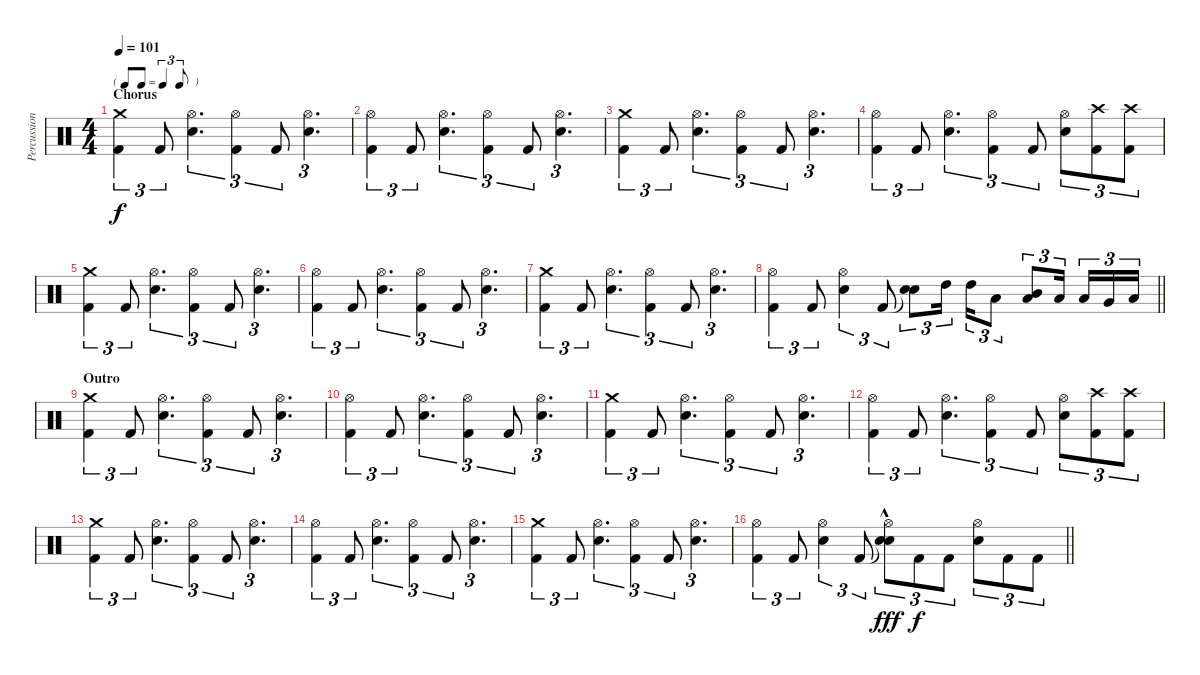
\track ("Percussion" "Percussion") {instrument percussion}
\staff {score}
\articulation defaults
\ts (4 4)
\tf triplet8th
\section ("" "Chorus")
\tempo 101
\clef neutral
\ks c
("Crash medium (hit)" "Kick (hit) 2").4{tu (3 2) dy f} "Kick (hit) 2".8{tu (3 2)} ("Hi-Hat (open)" "Electric Snare (hit)").4{d tu (3 2)} ("Hi-Hat (open)" "Kick (hit) 2").4{tu (3 2)} "Kick (hit) 2".8{tu (3 2)} ("Hi-Hat (open)" "Electric Snare (hit)").4{d tu (3 2)} |
("Hi-Hat (open)" "Kick (hit) 2").4{tu (3 2)} "Kick (hit) 2".8{tu (3 2)} ("Hi-Hat (open)" "Electric Snare (hit)").4{d tu (3 2)} ("Hi-Hat (open)" "Kick (hit) 2").4{tu (3 2)} "Kick (hit) 2".8{tu (3 2)} ("Hi-Hat (open)" "Electric Snare (hit)").4{d tu (3 2)} |
("Crash medium (hit)" "Kick (hit) 2").4{tu (3 2)} "Kick (hit) 2".8{tu (3 2)} ("Hi-Hat (open)" "Electric Snare (hit)").4{d tu (3 2)} ("Hi-Hat (open)" "Kick (hit) 2").4{tu (3 2)} "Kick (hit) 2".8{tu (3 2)} ("Hi-Hat (open)" "Electric Snare (hit)").4{d tu (3 2)} |
("Hi-Hat (open)" "Kick (hit) 2").4{tu (3 2)} "Kick (hit) 2".8{tu (3 2)} ("Hi-Hat (open)" "Electric Snare (hit)").4{d tu (3 2)} ("Hi-Hat (open)" "Kick (hit) 2").4{tu (3 2)} "Kick (hit) 2".8{tu (3 2)} ("Hi-Hat (open)" "Electric Snare (hit)").8{tu (3 2)} ("Crash high (hit)" "Kick (hit) 2").8{tu (3 2)} ("Crash high (hit)" "Kick (hit) 2").8{tu (3 2)} |
("Crash medium (hit)" "Kick (hit) 2").4{tu (3 2)} "Kick (hit) 2".8{tu (3 2)} ("Hi-Hat (open)" "Electric Snare (hit)").4{d tu (3 2)} ("Hi-Hat (open)" "Kick (hit) 2").4{tu (3 2)} "Kick (hit) 2".8{tu (3 2)} ("Hi-Hat (open)" "Electric Snare (hit)").4{d tu (3 2)} |
("Hi-Hat (open)" "Kick (hit) 2").4{tu (3 2)} "Kick (hit) 2".8{tu (3 2)} ("Hi-Hat (open)" "Electric Snare (hit)").4{d tu (3 2)} ("Hi-Hat (open)" "Kick (hit) 2").4{tu (3 2)} "Kick (hit) 2".8{tu (3 2)} ("Hi-Hat (open)" "Electric Snare (hit)").4{d tu (3 2)} |
("Crash medium (hit)" "Kick (hit) 2").4{tu (3 2)} "Kick (hit) 2".8{tu (3 2)} ("Hi-Hat (open)" "Electric Snare (hit)").4{d tu (3 2)} ("Hi-Hat (open)" "Kick (hit) 2").4{tu (3 2)} "Kick (hit) 2".8{tu (3 2)} ("Hi-Hat (open)" "Electric Snare (hit)").4{d tu (3 2)} |
\barLineRight lightlight
("Hi-Hat (open)" "Kick (hit) 2").4{tu (3 2)} "Kick (hit) 2".8{tu (3 2)} ("Hi-Hat (open)" "Electric Snare (hit)").4{tu (3 2)} "Kick (hit) 2".8{tu (3 2)} ("Snare (hit)"{t} "Electric Snare (hit)").8{tu (3 2)} "High Tom (hit)".16{tu (3 2) beam splitsecondary} "High Tom (hit)".16{tu (3 2)} "Low Tom (hit)".8{tu (3 2)} ("Mid Tom (hit)" "Low Tom (hit)").8{tu (3 2)} "Low Tom (hit)".16{tu (3 2) beam splitsecondary} "Low Tom (hit)".16{tu (3 2)} "Very Low Tom (hit)".16{tu (3 2)} "Low Floor Tom (hit)".16{tu (3 2)} |
\section ("" "Outro")
("Crash medium (hit)" "Kick (hit) 2").4{tu (3 2)} "Kick (hit) 2".8{tu (3 2)} ("Hi-Hat (open)" "Electric Snare (hit)").4{d tu (3 2)} ("Hi-Hat (open)" "Kick (hit) 2").4{tu (3 2)} "Kick (hit) 2".8{tu (3 2)} ("Hi-Hat (open)" "Electric Snare (hit)").4{d tu (3 2)} |
("Hi-Hat (open)" "Kick (hit) 2").4{tu (3 2)} "Kick (hit) 2".8{tu (3 2)} ("Hi-Hat (open)" "Electric Snare (hit)").4{d tu (3 2)} ("Hi-Hat (open)" "Kick (hit) 2").4{tu (3 2)} "Kick (hit) 2".8{tu (3 2)} ("Hi-Hat (open)" "Electric Snare (hit)").4{d tu (3 2)} |
("Crash medium (hit)" "Kick (hit) 2").4{tu (3 2)} "Kick (hit) 2".8{tu (3 2)} ("Hi-Hat (open)" "Electric Snare (hit)").4{d tu (3 2)} ("Hi-Hat (open)" "Kick (hit) 2").4{tu (3 2)} "Kick (hit) 2".8{tu (3 2)} ("Hi-Hat (open)" "Electric Snare (hit)").4{d tu (3 2)} |
("Hi-Hat (open)" "Kick (hit) 2").4{tu (3 2)} "Kick (hit) 2".8{tu (3 2)} ("Hi-Hat (open)" "Electric Snare (hit)").4{d tu (3 2)} ("Hi-Hat (open)" "Kick (hit) 2").4{tu (3 2)} "Kick (hit) 2".8{tu (3 2)} ("Hi-Hat (open)" "Electric Snare (hit)").8{tu (3 2)} ("Crash high (hit)" "Kick (hit) 2").8{tu (3 2)} ("Crash high (hit)" "Kick (hit) 2").8{tu (3 2)} |
("Crash medium (hit)" "Kick (hit) 2").4{tu (3 2)} "Kick (hit) 2".8{tu (3 2)} ("Hi-Hat (open)" "Electric Snare (hit)").4{d tu (3 2)} ("Hi-Hat (open)" "Kick (hit) 2").4{tu (3 2)} "Kick (hit) 2".8{tu (3 2)} ("Hi-Hat (open)" "Electric Snare (hit)").4{d tu (3 2)} |
("Hi-Hat (open)" "Kick (hit) 2").4{tu (3 2)} "Kick (hit) 2".8{tu (3 2)} ("Hi-Hat (open)" "Electric Snare (hit)").4{d tu (3 2)} ("Hi-Hat (open)" "Kick (hit) 2").4{tu (3 2)} "Kick (hit) 2".8{tu (3 2)} ("Hi-Hat (open)" "Electric Snare (hit)").4{d tu (3 2)} |
("Crash medium (hit)" "Kick (hit) 2").4{tu (3 2)} "Kick (hit) 2".8{tu (3 2)} ("Hi-Hat (open)" "Electric Snare (hit)").4{d tu (3 2)} ("Hi-Hat (open)" "Kick (hit) 2").4{tu (3 2)} "Kick (hit) 2".8{tu (3 2)} ("Hi-Hat (open)" "Electric Snare (hit)").4{d tu (3 2)} |
\barLineRight lightlight
("Hi-Hat (open)" "Kick (hit) 2").4{tu (3 2)} "Kick (hit) 2".8{tu (3 2)} ("Hi-Hat (open)" "Electric Snare (hit)").4{tu (3 2)} "Kick (hit) 2".8{tu (3 2)} ("Snare (hit)"{t} "Hi-Hat (open)" "Electric Snare (hit)"{hac}).8{tu (3 2) dy fff} "Kick (hit) 2".8{tu (3 2) dy f} "Kick (hit) 2".8{tu (3 2)} ("Hi-Hat (open)" "Electric Snare (hit)").8{tu (3 2)} "Kick (hit) 2".8{tu (3 2)} "Kick (hit) 2".8{tu (3 2)}
